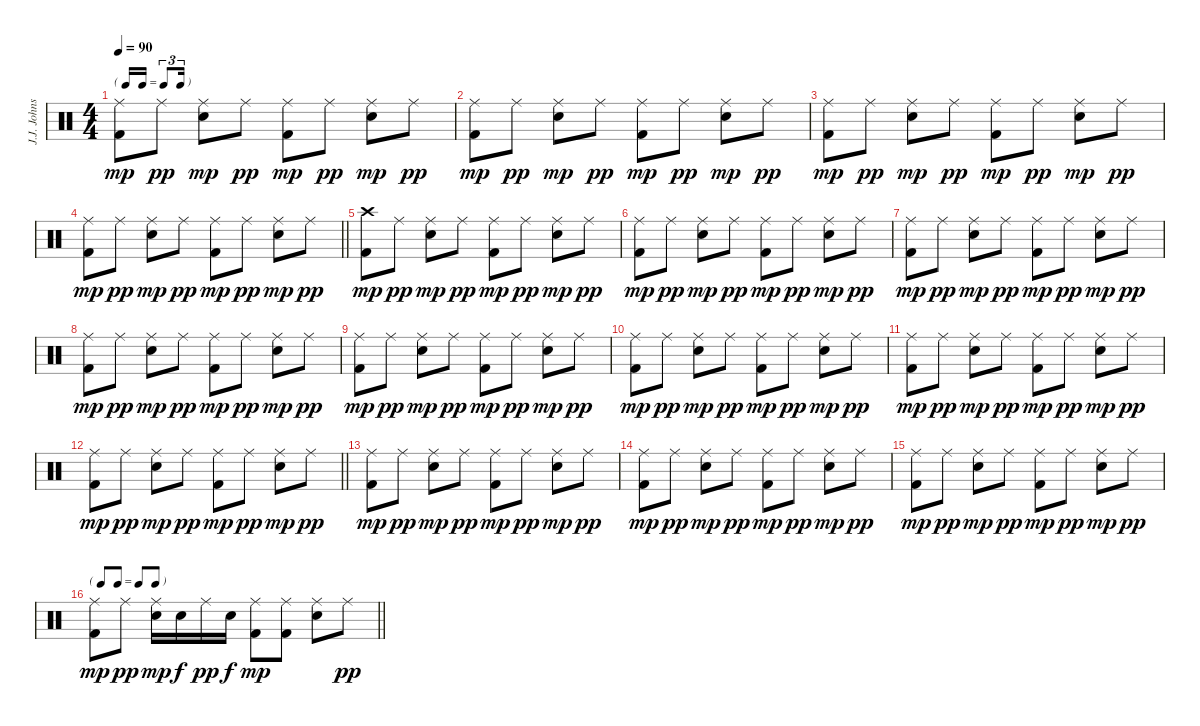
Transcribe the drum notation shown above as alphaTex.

\track ("J.J. Johnson" "J.J. Johns") {instrument percussion}
\staff {score}
\articulation defaults
\ts (4 4)
\tf triplet16th
\tempo 90
\clef neutral
\ks c
("Ride (middle)" "Kick (hit) 2").8{dy mp} "Ride (middle)".8{dy pp} ("Ride (middle)" "Electric Snare (hit)").8{dy mp} "Ride (middle)".8{dy pp} ("Ride (middle)" "Kick (hit) 2").8{dy mp} "Ride (middle)".8{dy pp} ("Ride (middle)" "Electric Snare (hit)").8{dy mp} "Ride (middle)".8{dy pp} |
("Ride (middle)" "Kick (hit) 2").8{dy mp} "Ride (middle)".8{dy pp} ("Ride (middle)" "Electric Snare (hit)").8{dy mp} "Ride (middle)".8{dy pp} ("Ride (middle)" "Kick (hit) 2").8{dy mp} "Ride (middle)".8{dy pp} ("Ride (middle)" "Electric Snare (hit)").8{dy mp} "Ride (middle)".8{dy pp} |
("Ride (middle)" "Kick (hit) 2").8{dy mp} "Ride (middle)".8{dy pp} ("Ride (middle)" "Electric Snare (hit)").8{dy mp} "Ride (middle)".8{dy pp} ("Ride (middle)" "Kick (hit) 2").8{dy mp} "Ride (middle)".8{dy pp} ("Ride (middle)" "Electric Snare (hit)").8{dy mp} "Ride (middle)".8{dy pp} |
\barLineRight lightlight
("Ride (middle)" "Kick (hit) 2").8{dy mp} "Ride (middle)".8{dy pp} ("Ride (middle)" "Electric Snare (hit)").8{dy mp} "Ride (middle)".8{dy pp} ("Ride (middle)" "Kick (hit) 2").8{dy mp} "Ride (middle)".8{dy pp} ("Ride (middle)" "Electric Snare (hit)").8{dy mp} "Ride (middle)".8{dy pp} |
("Crash high (hit)" "Kick (hit) 2").8{dy mp} "Ride (middle)".8{dy pp} ("Ride (middle)" "Electric Snare (hit)").8{dy mp} "Ride (middle)".8{dy pp} ("Ride (middle)" "Kick (hit) 2").8{dy mp} "Ride (middle)".8{dy pp} ("Ride (middle)" "Electric Snare (hit)").8{dy mp} "Ride (middle)".8{dy pp} |
("Ride (middle)" "Kick (hit) 2").8{dy mp} "Ride (middle)".8{dy pp} ("Ride (middle)" "Electric Snare (hit)").8{dy mp} "Ride (middle)".8{dy pp} ("Ride (middle)" "Kick (hit) 2").8{dy mp} "Ride (middle)".8{dy pp} ("Ride (middle)" "Electric Snare (hit)").8{dy mp} "Ride (middle)".8{dy pp} |
("Ride (middle)" "Kick (hit) 2").8{dy mp} "Ride (middle)".8{dy pp} ("Ride (middle)" "Electric Snare (hit)").8{dy mp} "Ride (middle)".8{dy pp} ("Ride (middle)" "Kick (hit) 2").8{dy mp} "Ride (middle)".8{dy pp} ("Ride (middle)" "Electric Snare (hit)").8{dy mp} "Ride (middle)".8{dy pp} |
("Ride (middle)" "Kick (hit) 2").8{dy mp} "Ride (middle)".8{dy pp} ("Ride (middle)" "Electric Snare (hit)").8{dy mp} "Ride (middle)".8{dy pp} ("Ride (middle)" "Kick (hit) 2").8{dy mp} "Ride (middle)".8{dy pp} ("Ride (middle)" "Electric Snare (hit)").8{dy mp} "Ride (middle)".8{dy pp} |
("Ride (middle)" "Kick (hit) 2").8{dy mp} "Ride (middle)".8{dy pp} ("Ride (middle)" "Electric Snare (hit)").8{dy mp} "Ride (middle)".8{dy pp} ("Ride (middle)" "Kick (hit) 2").8{dy mp} "Ride (middle)".8{dy pp} ("Ride (middle)" "Electric Snare (hit)").8{dy mp} "Ride (middle)".8{dy pp} |
("Ride (middle)" "Kick (hit) 2").8{dy mp} "Ride (middle)".8{dy pp} ("Ride (middle)" "Electric Snare (hit)").8{dy mp} "Ride (middle)".8{dy pp} ("Ride (middle)" "Kick (hit) 2").8{dy mp} "Ride (middle)".8{dy pp} ("Ride (middle)" "Electric Snare (hit)").8{dy mp} "Ride (middle)".8{dy pp} |
("Ride (middle)" "Kick (hit) 2").8{dy mp} "Ride (middle)".8{dy pp} ("Ride (middle)" "Electric Snare (hit)").8{dy mp} "Ride (middle)".8{dy pp} ("Ride (middle)" "Kick (hit) 2").8{dy mp} "Ride (middle)".8{dy pp} ("Ride (middle)" "Electric Snare (hit)").8{dy mp} "Ride (middle)".8{dy pp} |
\barLineRight lightlight
("Ride (middle)" "Kick (hit) 2").8{dy mp} "Ride (middle)".8{dy pp} ("Ride (middle)" "Electric Snare (hit)").8{dy mp} "Ride (middle)".8{dy pp} ("Ride (middle)" "Kick (hit) 2").8{dy mp} "Ride (middle)".8{dy pp} ("Ride (middle)" "Electric Snare (hit)").8{dy mp} "Ride (middle)".8{dy pp} |
("Ride (middle)" "Kick (hit) 2").8{dy mp} "Ride (middle)".8{dy pp} ("Ride (middle)" "Electric Snare (hit)").8{dy mp} "Ride (middle)".8{dy pp} ("Ride (middle)" "Kick (hit) 2").8{dy mp} "Ride (middle)".8{dy pp} ("Ride (middle)" "Electric Snare (hit)").8{dy mp} "Ride (middle)".8{dy pp} |
("Ride (middle)" "Kick (hit) 2").8{dy mp} "Ride (middle)".8{dy pp} ("Ride (middle)" "Electric Snare (hit)").8{dy mp} "Ride (middle)".8{dy pp} ("Ride (middle)" "Kick (hit) 2").8{dy mp} "Ride (middle)".8{dy pp} ("Ride (middle)" "Electric Snare (hit)").8{dy mp} "Ride (middle)".8{dy pp} |
("Ride (middle)" "Kick (hit) 2").8{dy mp} "Ride (middle)".8{dy pp} ("Ride (middle)" "Electric Snare (hit)").8{dy mp} "Ride (middle)".8{dy pp} ("Ride (middle)" "Kick (hit) 2").8{dy mp} "Ride (middle)".8{dy pp} ("Ride (middle)" "Electric Snare (hit)").8{dy mp} "Ride (middle)".8{dy pp} |
\tf none
\barLineRight lightlight
("Ride (middle)" "Kick (hit) 2").8{dy mp} "Ride (middle)".8{dy pp} ("Ride (middle)" "Electric Snare (hit)").16{dy mp} "Electric Snare (hit)".16{dy f} "Ride (middle)".16{dy pp} "Electric Snare (hit)".16{dy f} ("Ride (middle)" "Kick (hit) 2").8{dy mp} ("Ride (middle)" "Kick (hit) 2").8 ("Ride (middle)" "Electric Snare (hit)").8 "Ride (middle)".8{dy pp}
